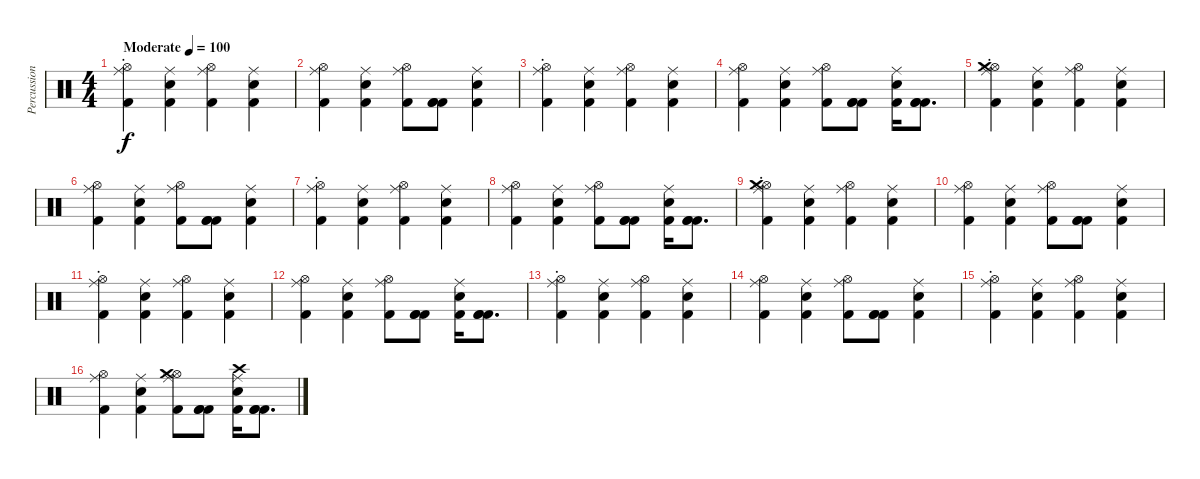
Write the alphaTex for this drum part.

\track ("Percussions" "Percussion") {instrument percussion}
\staff {score}
\articulation defaults
\ts (4 4)
\tempo (100 "Moderate")
\clef neutral
\ks c
("Ride (middle)" "Kick (hit) 2" "Hi-Hat (open)"{st}).4{dy f} ("Snare (hit) 2" "Kick (hit) 2" "Ride (middle)").4 ("Kick (hit) 2" "Ride (middle)" "Hi-Hat (open)").4 ("Kick (hit) 2" "Snare (hit) 2" "Ride (middle)").4 |
("Kick (hit) 2" "Ride (middle)" "Hi-Hat (open)").4 ("Kick (hit) 2" "Snare (hit) 2" "Ride (middle)").4 ("Kick (hit) 2" "Ride (middle)" "Hi-Hat (open)").8 ("Kick (hit) 2" "Kick (hit) 2" "Kick (hit) 2").8 ("Kick (hit) 2" "Snare (hit) 2" "Ride (middle)").4 |
("Ride (middle)" "Kick (hit) 2" "Hi-Hat (open)"{st}).4 ("Snare (hit) 2" "Kick (hit) 2" "Ride (middle)").4 ("Kick (hit) 2" "Ride (middle)" "Hi-Hat (open)").4 ("Kick (hit) 2" "Snare (hit) 2" "Ride (middle)").4 |
("Kick (hit) 2" "Ride (middle)" "Hi-Hat (open)").4 ("Kick (hit) 2" "Snare (hit) 2" "Ride (middle)").4 ("Kick (hit) 2" "Ride (middle)" "Hi-Hat (open)").8 ("Kick (hit) 2" "Kick (hit) 2" "Kick (hit) 2").8 ("Kick (hit) 2" "Snare (hit) 2" "Ride (middle)").16 ("Kick (hit) 2" "Kick (hit) 2" "Kick (hit) 2").8{d} |
("Ride (middle)" "Kick (hit) 2" "Hi-Hat (open)"{st} "Crash medium (hit)").4 ("Snare (hit) 2" "Kick (hit) 2" "Ride (middle)").4 ("Kick (hit) 2" "Ride (middle)" "Hi-Hat (open)").4 ("Kick (hit) 2" "Snare (hit) 2" "Ride (middle)").4 |
("Kick (hit) 2" "Ride (middle)" "Hi-Hat (open)").4 ("Kick (hit) 2" "Snare (hit) 2" "Ride (middle)").4 ("Kick (hit) 2" "Ride (middle)" "Hi-Hat (open)").8 ("Kick (hit) 2" "Kick (hit) 2" "Kick (hit) 2").8 ("Kick (hit) 2" "Snare (hit) 2" "Ride (middle)").4 |
("Ride (middle)" "Kick (hit) 2" "Hi-Hat (open)"{st}).4 ("Snare (hit) 2" "Kick (hit) 2" "Ride (middle)").4 ("Kick (hit) 2" "Ride (middle)" "Hi-Hat (open)").4 ("Kick (hit) 2" "Snare (hit) 2" "Ride (middle)").4 |
("Kick (hit) 2" "Ride (middle)" "Hi-Hat (open)").4 ("Kick (hit) 2" "Snare (hit) 2" "Ride (middle)").4 ("Kick (hit) 2" "Ride (middle)" "Hi-Hat (open)").8 ("Kick (hit) 2" "Kick (hit) 2" "Kick (hit) 2").8 ("Kick (hit) 2" "Snare (hit) 2" "Ride (middle)").16 ("Kick (hit) 2" "Kick (hit) 2" "Kick (hit) 2").8{d} |
("Ride (middle)" "Kick (hit) 2" "Hi-Hat (open)"{st} "Crash medium (hit)").4 ("Snare (hit) 2" "Kick (hit) 2" "Ride (middle)").4 ("Kick (hit) 2" "Ride (middle)" "Hi-Hat (open)").4 ("Kick (hit) 2" "Snare (hit) 2" "Ride (middle)").4 |
("Kick (hit) 2" "Ride (middle)" "Hi-Hat (open)").4 ("Kick (hit) 2" "Snare (hit) 2" "Ride (middle)").4 ("Kick (hit) 2" "Ride (middle)" "Hi-Hat (open)").8 ("Kick (hit) 2" "Kick (hit) 2" "Kick (hit) 2").8 ("Kick (hit) 2" "Snare (hit) 2" "Ride (middle)").4 |
("Ride (middle)" "Kick (hit) 2" "Hi-Hat (open)"{st}).4 ("Snare (hit) 2" "Kick (hit) 2" "Ride (middle)").4 ("Kick (hit) 2" "Ride (middle)" "Hi-Hat (open)").4 ("Kick (hit) 2" "Snare (hit) 2" "Ride (middle)").4 |
("Kick (hit) 2" "Ride (middle)" "Hi-Hat (open)").4 ("Kick (hit) 2" "Snare (hit) 2" "Ride (middle)").4 ("Kick (hit) 2" "Ride (middle)" "Hi-Hat (open)").8 ("Kick (hit) 2" "Kick (hit) 2" "Kick (hit) 2").8 ("Kick (hit) 2" "Snare (hit) 2" "Ride (middle)").16 ("Kick (hit) 2" "Kick (hit) 2" "Kick (hit) 2").8{d} |
("Ride (middle)" "Kick (hit) 2" "Hi-Hat (open)"{st}).4 ("Snare (hit) 2" "Kick (hit) 2" "Ride (middle)").4 ("Kick (hit) 2" "Ride (middle)" "Hi-Hat (open)").4 ("Kick (hit) 2" "Snare (hit) 2" "Ride (middle)").4 |
("Kick (hit) 2" "Ride (middle)" "Hi-Hat (open)").4 ("Kick (hit) 2" "Snare (hit) 2" "Ride (middle)").4 ("Kick (hit) 2" "Ride (middle)" "Hi-Hat (open)").8 ("Kick (hit) 2" "Kick (hit) 2" "Kick (hit) 2").8 ("Kick (hit) 2" "Snare (hit) 2" "Ride (middle)").4 |
("Ride (middle)" "Kick (hit) 2" "Hi-Hat (open)"{st}).4 ("Snare (hit) 2" "Kick (hit) 2" "Ride (middle)").4 ("Kick (hit) 2" "Ride (middle)" "Hi-Hat (open)").4 ("Kick (hit) 2" "Snare (hit) 2" "Ride (middle)").4 |
("Kick (hit) 2" "Ride (middle)" "Hi-Hat (open)").4 ("Kick (hit) 2" "Snare (hit) 2" "Ride (middle)").4 ("Kick (hit) 2" "Ride (middle)" "Hi-Hat (open)" "Crash medium (hit)").8 ("Kick (hit) 2" "Kick (hit) 2" "Kick (hit) 2").8 ("Kick (hit) 2" "Snare (hit) 2" "Ride (middle)" "Crash high (hit)").16 ("Kick (hit) 2" "Kick (hit) 2" "Kick (hit) 2").8{d}
